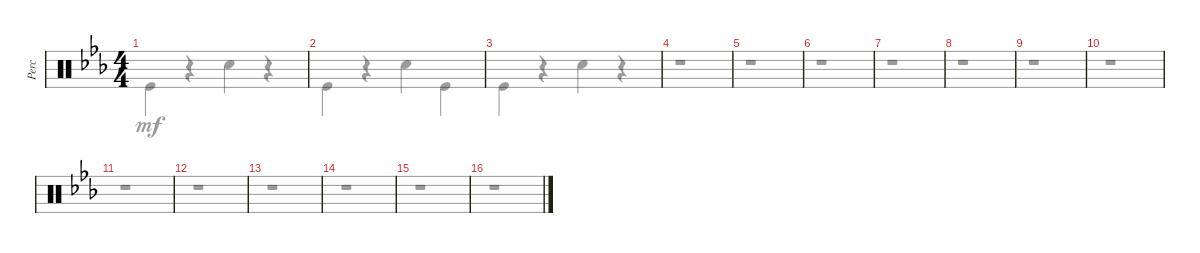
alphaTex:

\defaultSystemsLayout 4
\bracketExtendMode groupsimilarinstruments
\otherSystemsTrackNameOrientation horizontal
\track ("Percussions" "Perc") {instrument percussion}
\staff {score}
\articulation defaults
\voice
\ts (4 4)
\tempo (140 hide)
\clef neutral
\ks cminor
|
|
|
|
|
|
|
|
|
|
|
|
|
|
|
\voice
\clef neutral
\ks cminor "Kick (hit)".4{dy mf}
r.4 "Snare (hit) 2".4 r.4 |
"Kick (hit)".4 r.4 "Snare (hit) 2".4 "Kick (hit)".4 |
"Kick (hit)".4 r.4 "Snare (hit) 2".4 r.4 |
r.1 |
r.1 |
r.1 |
r.1 |
r.1 |
r.1 |
r.1 |
r.1 |
r.1 |
r.1 |
r.1 |
r.1 |
r.1
